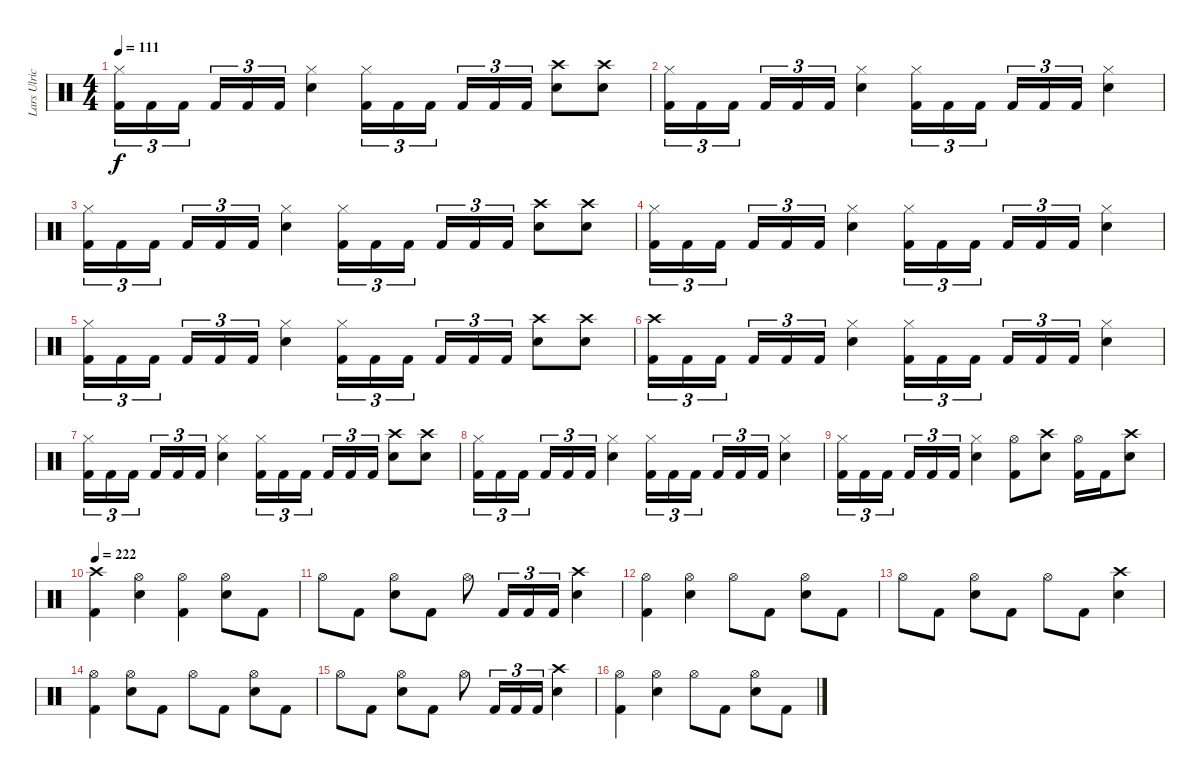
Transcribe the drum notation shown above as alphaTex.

\track ("Lars Ulrich" "Lars Ulric") {instrument percussion}
\staff {score}
\articulation defaults
\ts (4 4)
\tempo 111
\clef neutral
\ks c
("Hi-Hat (closed)" "Kick (hit) 2").16{tu (3 2) dy f} "Kick (hit) 2".16{tu (3 2)} "Kick (hit) 2".16{tu (3 2) beam splitsecondary} "Kick (hit) 2".16{tu (3 2)} "Kick (hit) 2".16{tu (3 2)} "Kick (hit) 2".16{tu (3 2)} ("Hi-Hat (closed)" "Electric Snare (hit)").4 ("Hi-Hat (closed)" "Kick (hit) 2").16{tu (3 2)} "Kick (hit) 2".16{tu (3 2)} "Kick (hit) 2".16{tu (3 2) beam splitsecondary} "Kick (hit) 2".16{tu (3 2)} "Kick (hit) 2".16{tu (3 2)} "Kick (hit) 2".16{tu (3 2)} ("Crash high (hit)" "Electric Snare (hit)").8 ("Crash high (hit)" "Electric Snare (hit)").8 |
("Hi-Hat (closed)" "Kick (hit) 2").16{tu (3 2)} "Kick (hit) 2".16{tu (3 2)} "Kick (hit) 2".16{tu (3 2) beam splitsecondary} "Kick (hit) 2".16{tu (3 2)} "Kick (hit) 2".16{tu (3 2)} "Kick (hit) 2".16{tu (3 2)} ("Hi-Hat (closed)" "Electric Snare (hit)").4 ("Hi-Hat (closed)" "Kick (hit) 2").16{tu (3 2)} "Kick (hit) 2".16{tu (3 2)} "Kick (hit) 2".16{tu (3 2) beam splitsecondary} "Kick (hit) 2".16{tu (3 2)} "Kick (hit) 2".16{tu (3 2)} "Kick (hit) 2".16{tu (3 2)} ("Hi-Hat (closed)" "Electric Snare (hit)").4 |
("Hi-Hat (closed)" "Kick (hit) 2").16{tu (3 2)} "Kick (hit) 2".16{tu (3 2)} "Kick (hit) 2".16{tu (3 2) beam splitsecondary} "Kick (hit) 2".16{tu (3 2)} "Kick (hit) 2".16{tu (3 2)} "Kick (hit) 2".16{tu (3 2)} ("Hi-Hat (closed)" "Electric Snare (hit)").4 ("Hi-Hat (closed)" "Kick (hit) 2").16{tu (3 2)} "Kick (hit) 2".16{tu (3 2)} "Kick (hit) 2".16{tu (3 2) beam splitsecondary} "Kick (hit) 2".16{tu (3 2)} "Kick (hit) 2".16{tu (3 2)} "Kick (hit) 2".16{tu (3 2)} ("Crash high (hit)" "Electric Snare (hit)").8 ("Crash high (hit)" "Electric Snare (hit)").8 |
("Hi-Hat (closed)" "Kick (hit) 2").16{tu (3 2)} "Kick (hit) 2".16{tu (3 2)} "Kick (hit) 2".16{tu (3 2) beam splitsecondary} "Kick (hit) 2".16{tu (3 2)} "Kick (hit) 2".16{tu (3 2)} "Kick (hit) 2".16{tu (3 2)} ("Hi-Hat (closed)" "Electric Snare (hit)").4 ("Hi-Hat (closed)" "Kick (hit) 2").16{tu (3 2)} "Kick (hit) 2".16{tu (3 2)} "Kick (hit) 2".16{tu (3 2) beam splitsecondary} "Kick (hit) 2".16{tu (3 2)} "Kick (hit) 2".16{tu (3 2)} "Kick (hit) 2".16{tu (3 2)} ("Hi-Hat (closed)" "Electric Snare (hit)").4 |
("Hi-Hat (closed)" "Kick (hit) 2").16{tu (3 2)} "Kick (hit) 2".16{tu (3 2)} "Kick (hit) 2".16{tu (3 2) beam splitsecondary} "Kick (hit) 2".16{tu (3 2)} "Kick (hit) 2".16{tu (3 2)} "Kick (hit) 2".16{tu (3 2)} ("Hi-Hat (closed)" "Electric Snare (hit)").4 ("Hi-Hat (closed)" "Kick (hit) 2").16{tu (3 2)} "Kick (hit) 2".16{tu (3 2)} "Kick (hit) 2".16{tu (3 2) beam splitsecondary} "Kick (hit) 2".16{tu (3 2)} "Kick (hit) 2".16{tu (3 2)} "Kick (hit) 2".16{tu (3 2)} ("Crash high (hit)" "Electric Snare (hit)").8 ("Crash high (hit)" "Electric Snare (hit)").8 |
("Crash high (hit)" "Kick (hit) 2").16{tu (3 2)} "Kick (hit) 2".16{tu (3 2)} "Kick (hit) 2".16{tu (3 2) beam splitsecondary} "Kick (hit) 2".16{tu (3 2)} "Kick (hit) 2".16{tu (3 2)} "Kick (hit) 2".16{tu (3 2)} ("Hi-Hat (closed)" "Electric Snare (hit)").4 ("Hi-Hat (closed)" "Kick (hit) 2").16{tu (3 2)} "Kick (hit) 2".16{tu (3 2)} "Kick (hit) 2".16{tu (3 2) beam splitsecondary} "Kick (hit) 2".16{tu (3 2)} "Kick (hit) 2".16{tu (3 2)} "Kick (hit) 2".16{tu (3 2)} ("Hi-Hat (closed)" "Electric Snare (hit)").4 |
("Hi-Hat (closed)" "Kick (hit) 2").16{tu (3 2)} "Kick (hit) 2".16{tu (3 2)} "Kick (hit) 2".16{tu (3 2) beam splitsecondary} "Kick (hit) 2".16{tu (3 2)} "Kick (hit) 2".16{tu (3 2)} "Kick (hit) 2".16{tu (3 2)} ("Hi-Hat (closed)" "Electric Snare (hit)").4 ("Hi-Hat (closed)" "Kick (hit) 2").16{tu (3 2)} "Kick (hit) 2".16{tu (3 2)} "Kick (hit) 2".16{tu (3 2) beam splitsecondary} "Kick (hit) 2".16{tu (3 2)} "Kick (hit) 2".16{tu (3 2)} "Kick (hit) 2".16{tu (3 2)} ("Crash high (hit)" "Electric Snare (hit)").8 ("Crash high (hit)" "Electric Snare (hit)").8 |
("Hi-Hat (closed)" "Kick (hit) 2").16{tu (3 2)} "Kick (hit) 2".16{tu (3 2)} "Kick (hit) 2".16{tu (3 2) beam splitsecondary} "Kick (hit) 2".16{tu (3 2)} "Kick (hit) 2".16{tu (3 2)} "Kick (hit) 2".16{tu (3 2)} ("Hi-Hat (closed)" "Electric Snare (hit)").4 ("Hi-Hat (closed)" "Kick (hit) 2").16{tu (3 2)} "Kick (hit) 2".16{tu (3 2)} "Kick (hit) 2".16{tu (3 2) beam splitsecondary} "Kick (hit) 2".16{tu (3 2)} "Kick (hit) 2".16{tu (3 2)} "Kick (hit) 2".16{tu (3 2)} ("Hi-Hat (closed)" "Electric Snare (hit)").4 |
("Hi-Hat (closed)" "Kick (hit) 2").16{tu (3 2)} "Kick (hit) 2".16{tu (3 2)} "Kick (hit) 2".16{tu (3 2) beam splitsecondary} "Kick (hit) 2".16{tu (3 2)} "Kick (hit) 2".16{tu (3 2)} "Kick (hit) 2".16{tu (3 2)} ("Hi-Hat (closed)" "Electric Snare (hit)").4 ("Hi-Hat (open)" "Kick (hit) 2").8 ("Crash high (hit)" "Electric Snare (hit)").8 ("Hi-Hat (open)" "Kick (hit) 2").16 "Kick (hit) 2".16 ("Crash high (hit)" "Electric Snare (hit)").8 |
\tempo 222
("Crash high (hit)" "Kick (hit) 2").4 ("Hi-Hat (open)" "Electric Snare (hit)").4 ("Hi-Hat (open)" "Kick (hit) 2").4 ("Hi-Hat (open)" "Electric Snare (hit)").8 "Kick (hit) 2".8 |
"Hi-Hat (open)".8 "Kick (hit) 2".8 ("Hi-Hat (open)" "Electric Snare (hit)").8 "Kick (hit) 2".8 "Hi-Hat (open)".8 "Kick (hit) 2".16{tu (3 2)} "Kick (hit) 2".16{tu (3 2)} "Kick (hit) 2".16{tu (3 2)} ("Crash high (hit)" "Electric Snare (hit)").4 |
("Hi-Hat (open)" "Kick (hit) 2").4 ("Hi-Hat (open)" "Electric Snare (hit)").4 "Hi-Hat (open)".8 "Kick (hit) 2".8 ("Hi-Hat (open)" "Electric Snare (hit)").8 "Kick (hit) 2".8 |
"Hi-Hat (open)".8 "Kick (hit) 2".8 ("Hi-Hat (open)" "Electric Snare (hit)").8 "Kick (hit) 2".8 "Hi-Hat (open)".8 "Kick (hit) 2".8 ("Crash high (hit)" "Electric Snare (hit)").4 |
("Hi-Hat (open)" "Kick (hit) 2").4 ("Hi-Hat (open)" "Electric Snare (hit)").8 "Kick (hit) 2".8 "Hi-Hat (open)".8 "Kick (hit) 2".8 ("Hi-Hat (open)" "Electric Snare (hit)").8 "Kick (hit) 2".8 |
"Hi-Hat (open)".8 "Kick (hit) 2".8 ("Hi-Hat (open)" "Electric Snare (hit)").8 "Kick (hit) 2".8 "Hi-Hat (open)".8 "Kick (hit) 2".16{tu (3 2)} "Kick (hit) 2".16{tu (3 2)} "Kick (hit) 2".16{tu (3 2)} ("Crash high (hit)" "Electric Snare (hit)").4 |
("Hi-Hat (open)" "Kick (hit) 2").4 ("Hi-Hat (open)" "Electric Snare (hit)").4 "Hi-Hat (open)".8 "Kick (hit) 2".8 ("Hi-Hat (open)" "Electric Snare (hit)").8 "Kick (hit) 2".8
